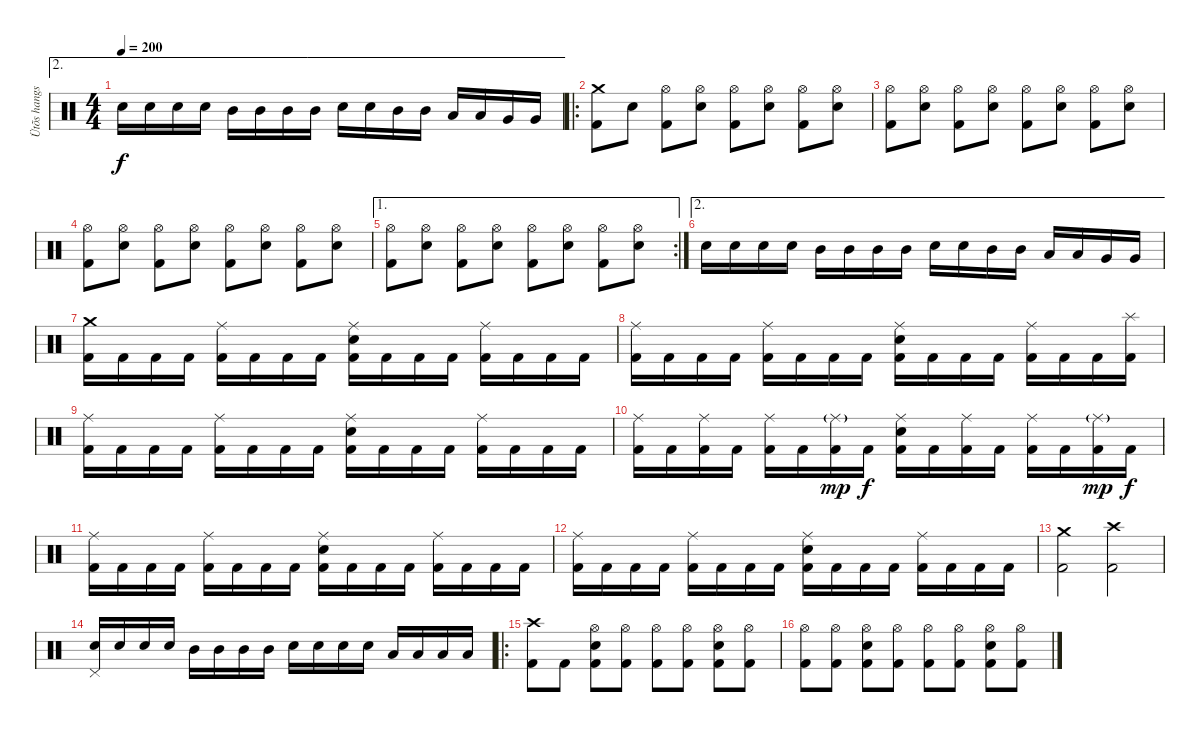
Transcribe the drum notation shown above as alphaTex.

\track ("Ütõs hangszer" "Ütõs hangs") {instrument percussion}
\staff {score}
\articulation defaults
\ae 2
\ts (4 4)
\tempo 200
\clef neutral
\ks c "Snare (hit) 2".16{dy f} "Snare (hit) 2".16 "Snare (hit) 2".16 "Snare (hit) 2".16 "Mid Tom (hit)".16 "Mid Tom (hit)".16 "Mid Tom (hit)".16 "Mid Tom (hit)".16 "Snare (hit) 2".16 "Snare (hit) 2".16 "Mid Tom (hit)".16 "Mid Tom (hit)".16 "Low Tom (hit)".16 "Low Tom (hit)".16 "Very Low Tom (hit)".16 "Very Low Tom (hit)".16
|
\ro
("Crash medium (hit)" "Kick (hit) 2").8 "Snare (hit) 2".8 ("Hi-Hat (open)" "Kick (hit) 2").8 ("Hi-Hat (open)" "Snare (hit) 2").8 ("Hi-Hat (open)" "Kick (hit) 2").8 ("Hi-Hat (open)" "Snare (hit) 2").8 ("Hi-Hat (open)" "Kick (hit) 2").8 ("Hi-Hat (open)" "Snare (hit) 2").8 |
("Hi-Hat (open)" "Kick (hit) 2").8 ("Hi-Hat (open)" "Snare (hit) 2").8 ("Hi-Hat (open)" "Kick (hit) 2").8 ("Hi-Hat (open)" "Snare (hit) 2").8 ("Hi-Hat (open)" "Kick (hit) 2").8 ("Hi-Hat (open)" "Snare (hit) 2").8 ("Hi-Hat (open)" "Kick (hit) 2").8 ("Hi-Hat (open)" "Snare (hit) 2").8 |
("Hi-Hat (open)" "Kick (hit) 2").8 ("Hi-Hat (open)" "Snare (hit) 2").8 ("Hi-Hat (open)" "Kick (hit) 2").8 ("Hi-Hat (open)" "Snare (hit) 2").8 ("Hi-Hat (open)" "Kick (hit) 2").8 ("Hi-Hat (open)" "Snare (hit) 2").8 ("Hi-Hat (open)" "Kick (hit) 2").8 ("Hi-Hat (open)" "Snare (hit) 2").8 |
\ae 1
\rc 2
("Hi-Hat (open)" "Kick (hit) 2").8 ("Hi-Hat (open)" "Snare (hit) 2").8 ("Hi-Hat (open)" "Kick (hit) 2").8 ("Hi-Hat (open)" "Snare (hit) 2").8 ("Hi-Hat (open)" "Kick (hit) 2").8 ("Hi-Hat (open)" "Snare (hit) 2").8 ("Hi-Hat (open)" "Kick (hit) 2").8 ("Hi-Hat (open)" "Snare (hit) 2").8 |
\ae 2 "Snare (hit) 2".16 "Snare (hit) 2".16 "Snare (hit) 2".16 "Snare (hit) 2".16 "Mid Tom (hit)".16 "Mid Tom (hit)".16 "Mid Tom (hit)".16 "Mid Tom (hit)".16 "Snare (hit) 2".16 "Snare (hit) 2".16 "Mid Tom (hit)".16 "Mid Tom (hit)".16 "Low Tom (hit)".16 "Low Tom (hit)".16 "Very Low Tom (hit)".16 "Very Low Tom (hit)".16
|
("Crash medium (hit)" "Kick (hit) 2").16 "Kick (hit) 2".16 "Kick (hit) 2".16 "Kick (hit) 2".16 ("Ride (middle)" "Kick (hit) 2").16 "Kick (hit) 2".16 "Kick (hit) 2".16 "Kick (hit) 2".16 ("Ride (middle)" "Snare (hit) 2" "Kick (hit) 2").16 "Kick (hit) 2".16 "Kick (hit) 2".16 "Kick (hit) 2".16 ("Ride (middle)" "Kick (hit) 2").16 "Kick (hit) 2".16 "Kick (hit) 2".16 "Kick (hit) 2".16 |
("Ride (middle)" "Kick (hit) 2").16 "Kick (hit) 2".16 "Kick (hit) 2".16 "Kick (hit) 2".16 ("Ride (middle)" "Kick (hit) 2").16 "Kick (hit) 2".16 "Kick (hit) 2".16 "Kick (hit) 2".16 ("Ride (middle)" "Snare (hit) 2" "Kick (hit) 2").16 "Kick (hit) 2".16 "Kick (hit) 2".16 "Kick (hit) 2".16 ("Ride (middle)" "Kick (hit) 2").16 "Kick (hit) 2".16 "Kick (hit) 2".16 ("Splash (hit)" "Kick (hit) 2").16 |
("Ride (middle)" "Kick (hit) 2").16 "Kick (hit) 2".16 "Kick (hit) 2".16 "Kick (hit) 2".16 ("Ride (middle)" "Kick (hit) 2").16 "Kick (hit) 2".16 "Kick (hit) 2".16 "Kick (hit) 2".16 ("Ride (middle)" "Snare (hit) 2" "Kick (hit) 2").16 "Kick (hit) 2".16 "Kick (hit) 2".16 "Kick (hit) 2".16 ("Ride (middle)" "Kick (hit) 2").16 "Kick (hit) 2".16 "Kick (hit) 2".16 "Kick (hit) 2".16 |
("Ride (middle)" "Kick (hit) 2").16 "Kick (hit) 2".16 ("Ride (middle)" "Kick (hit) 2").16 "Kick (hit) 2".16 ("Ride (middle)" "Kick (hit) 2").16 "Kick (hit) 2".16 ("Ride (middle)"{g} "Kick (hit) 2").16{dy mp} "Kick (hit) 2".16{dy f} ("Ride (middle)" "Snare (hit) 2" "Kick (hit) 2").16 "Kick (hit) 2".16 ("Ride (middle)" "Kick (hit) 2").16 "Kick (hit) 2".16 ("Ride (middle)" "Kick (hit) 2").16 "Kick (hit) 2".16 ("Ride (middle)"{g} "Kick (hit) 2").16{dy mp} "Kick (hit) 2".16{dy f} |
("Ride (middle)" "Kick (hit) 2").16 "Kick (hit) 2".16 "Kick (hit) 2".16 "Kick (hit) 2".16 ("Ride (middle)" "Kick (hit) 2").16 "Kick (hit) 2".16 "Kick (hit) 2".16 "Kick (hit) 2".16 ("Ride (middle)" "Snare (hit) 2" "Kick (hit) 2").16 "Kick (hit) 2".16 "Kick (hit) 2".16 "Kick (hit) 2".16 ("Ride (middle)" "Kick (hit) 2").16 "Kick (hit) 2".16 "Kick (hit) 2".16 "Kick (hit) 2".16 |
("Ride (middle)" "Kick (hit) 2").16 "Kick (hit) 2".16 "Kick (hit) 2".16 "Kick (hit) 2".16 ("Ride (middle)" "Kick (hit) 2").16 "Kick (hit) 2".16 "Kick (hit) 2".16 "Kick (hit) 2".16 ("Ride (middle)" "Snare (hit) 2" "Kick (hit) 2").16 "Kick (hit) 2".16 "Kick (hit) 2".16 "Kick (hit) 2".16 ("Ride (middle)" "Kick (hit) 2").16 "Kick (hit) 2".16 "Kick (hit) 2".16 "Kick (hit) 2".16 |
("Crash medium (hit)" "Kick (hit) 2").2 ("Crash high (hit)" "Kick (hit) 2").2 |
("Pedal Hi-Hat (hit)" "Snare (hit) 2").16 "Snare (hit) 2".16 "Snare (hit) 2".16 "Snare (hit) 2".16 "Mid Tom (hit)".16 "Mid Tom (hit)".16 "Mid Tom (hit)".16 "Mid Tom (hit)".16 "Snare (hit) 2".16 "Snare (hit) 2".16 "Snare (hit) 2".16 "Snare (hit) 2".16 "Low Tom (hit)".16 "Low Tom (hit)".16 "Low Tom (hit)".16 "Low Tom (hit)".16 |
\ro
("Crash high (hit)" "Kick (hit) 2").8 "Kick (hit) 2".8 ("Hi-Hat (open)" "Snare (hit) 2" "Kick (hit) 2").8 ("Hi-Hat (open)" "Kick (hit) 2").8 ("Hi-Hat (open)" "Kick (hit) 2").8 ("Hi-Hat (open)" "Kick (hit) 2").8 ("Hi-Hat (open)" "Snare (hit) 2" "Kick (hit) 2").8 ("Hi-Hat (open)" "Kick (hit) 2").8 |
("Hi-Hat (open)" "Kick (hit) 2").8 ("Hi-Hat (open)" "Kick (hit) 2").8 ("Hi-Hat (open)" "Snare (hit) 2" "Kick (hit) 2").8 ("Hi-Hat (open)" "Kick (hit) 2").8 ("Hi-Hat (open)" "Kick (hit) 2").8 ("Hi-Hat (open)" "Kick (hit) 2").8 ("Hi-Hat (open)" "Snare (hit) 2" "Kick (hit) 2").8 ("Hi-Hat (open)" "Kick (hit) 2").8
